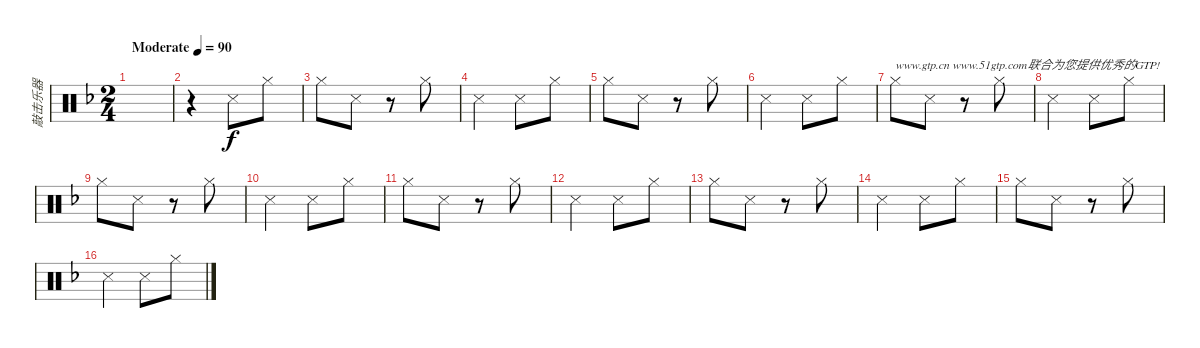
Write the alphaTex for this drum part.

\track ("敲击乐器" "敲击乐器") {instrument percussion bank 8}
\staff {score}
\articulation defaults
\ts (2 4)
\tempo (90 "Moderate")
\clef neutral
\ks f
|
r.4 "Snare (side stick) 3".8 "Hi-Hat (closed)".8 |
"Hi-Hat (closed)".8 "Snare (side stick) 3".8 r.8 "Hi-Hat (closed)".8 |
"Snare (side stick) 3".4 "Snare (side stick) 3".8 "Hi-Hat (closed)".8 |
"Hi-Hat (closed)".8 "Snare (side stick) 3".8 r.8 "Hi-Hat (closed)".8 |
"Snare (side stick) 3".4 "Snare (side stick) 3".8 "Hi-Hat (closed)".8 |
"Hi-Hat (closed)".8{txt "www.gtp.cn www.51gtp.com联合为您提供优秀的GTP!"} "Snare (side stick) 3".8 r.8 "Hi-Hat (closed)".8 |
"Snare (side stick) 3".4 "Snare (side stick) 3".8 "Hi-Hat (closed)".8 |
"Hi-Hat (closed)".8 "Snare (side stick) 3".8 r.8 "Hi-Hat (closed)".8 |
"Snare (side stick) 3".4 "Snare (side stick) 3".8 "Hi-Hat (closed)".8 |
"Hi-Hat (closed)".8 "Snare (side stick) 3".8 r.8 "Hi-Hat (closed)".8 |
"Snare (side stick) 3".4 "Snare (side stick) 3".8 "Hi-Hat (closed)".8 |
"Hi-Hat (closed)".8 "Snare (side stick) 3".8 r.8 "Hi-Hat (closed)".8 |
"Snare (side stick) 3".4 "Snare (side stick) 3".8 "Hi-Hat (closed)".8 |
"Hi-Hat (closed)".8 "Snare (side stick) 3".8 r.8 "Hi-Hat (closed)".8 |
"Snare (side stick) 3".4 "Snare (side stick) 3".8 "Hi-Hat (closed)".8
